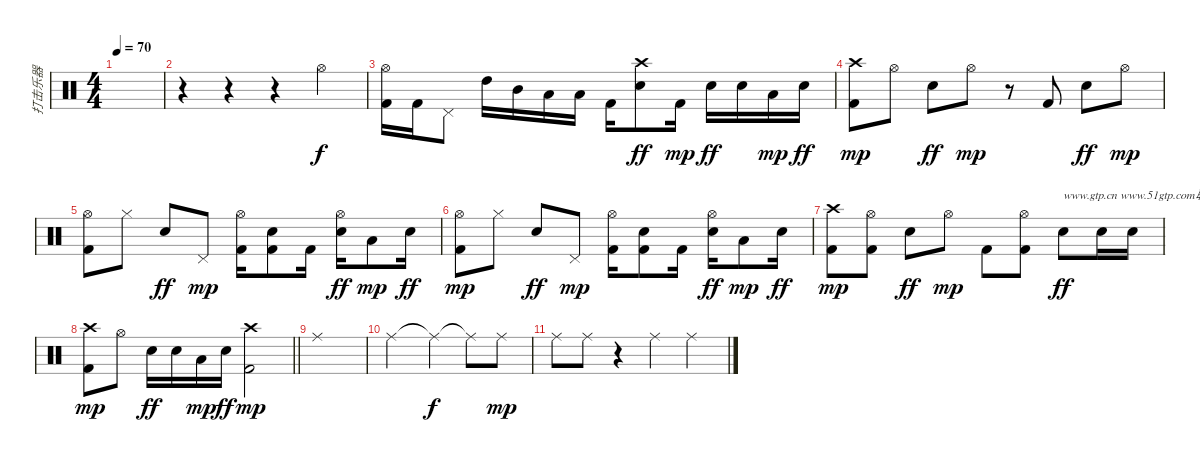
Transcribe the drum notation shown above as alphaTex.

\track ("打击乐器" "打击乐器") {instrument percussion}
\staff {score}
\articulation defaults
\ts (4 4)
\tempo 70
\clef neutral
\ks c
|
r.4 r.4 r.4 "Hi-Hat (open)".4 |
("Hi-Hat (open)" "Kick (hit) 2").16 "Kick (hit) 2".16 "Pedal Hi-Hat (hit)".8 "High Tom (hit)".16 "Mid Tom (hit)".16 "Low Tom (hit)".16 "Low Tom (hit)".16 "Kick (hit) 2".16 ("Crash high (hit)" "Snare (hit) 2").8{dy ff} "Kick (hit) 2".16{dy mp} "Snare (hit) 2".16{dy ff} "Snare (hit) 2".16 "Low Tom (hit)".16{dy mp} "Snare (hit) 2".16{dy ff} |
("Crash high (hit)" "Kick (hit) 2").8{dy mp} "Hi-Hat (open)".8 "Snare (hit) 2".8{dy ff} "Hi-Hat (open)".8{dy mp} r.8 "Kick (hit) 2".8 "Snare (hit) 2".8{dy ff} "Hi-Hat (open)".8{dy mp} |
("Hi-Hat (open)" "Kick (hit) 2").8 "Hi-Hat (closed)".8 "Snare (hit) 2".8{dy ff} "Pedal Hi-Hat (hit)".8{dy mp} ("Hi-Hat (open)" "Kick (hit) 2").16 ("Snare (hit) 2" "Kick (hit) 2").8 "Kick (hit) 2".16 ("Hi-Hat (open)" "Snare (hit) 2").16{dy ff} "Low Tom (hit)".8{dy mp} "Snare (hit) 2".16{dy ff} |
("Hi-Hat (open)" "Kick (hit) 2").8{dy mp} "Hi-Hat (closed)".8 "Snare (hit) 2".8{dy ff} "Pedal Hi-Hat (hit)".8{dy mp} ("Hi-Hat (open)" "Kick (hit) 2").16 ("Snare (hit) 2" "Kick (hit) 2").8 "Kick (hit) 2".16 ("Hi-Hat (open)" "Snare (hit) 2").16{dy ff} "Low Tom (hit)".8{dy mp} "Snare (hit) 2".16{dy ff} |
("Crash high (hit)" "Kick (hit) 2").8{dy mp} ("Hi-Hat (open)" "Kick (hit) 2").8 "Snare (hit) 2".8{dy ff} "Hi-Hat (open)".8{dy mp} "Kick (hit) 2".8 ("Hi-Hat (open)" "Kick (hit) 2").8 "Snare (hit) 2".8{txt "www.gtp.cn www.51gtp.com联合为您提供优秀的GTP!" dy ff} "Snare (hit) 2".16 "Snare (hit) 2".16 |
\barLineRight lightlight
("Crash high (hit)" "Kick (hit) 2").8{dy mp} "Hi-Hat (open)".8 "Snare (hit) 2".16{dy ff} "Snare (hit) 2".16 "Low Tom (hit)".16{dy mp} "Snare (hit) 2".16{dy ff} ("Crash high (hit)" "Kick (hit) 2").2{dy mp} |
"Ride (middle)".1 |
"Ride (middle)".2 "Ride (middle)"{t}.4{dy f} "Ride (middle)"{t}.8 "Ride (middle)".8{dy mp} |
"Ride (middle)".8 "Ride (middle)".8 r.4 "Ride (middle)".4 "Ride (middle)".4
